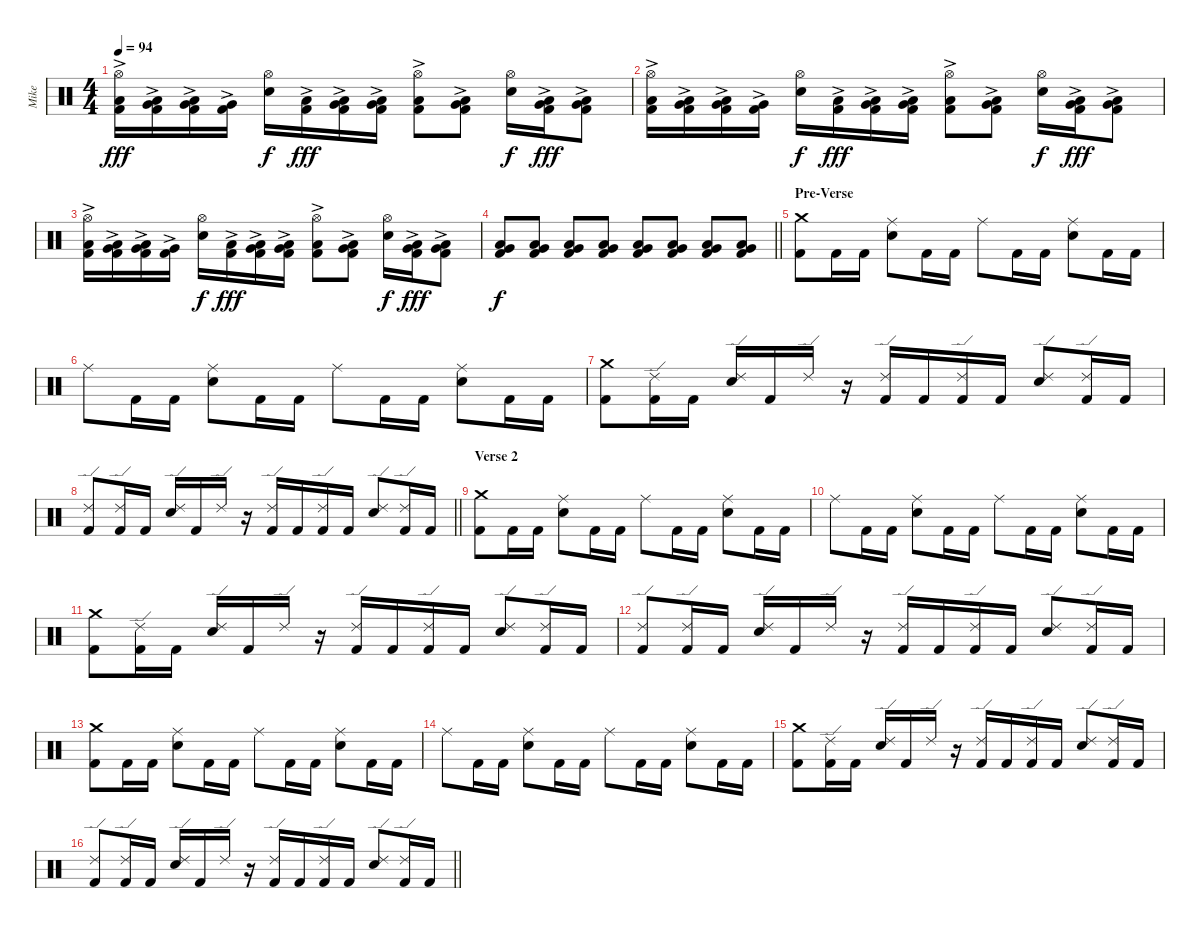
\track ("Mike" "Mike") {instrument percussion}
\staff {score}
\articulation defaults
\ts (4 4)
\tempo 94
\clef neutral
\ks c
("Hi-Hat (open)" "Low Tom (hit)"{ac} "Kick (hit) 2").16{dy fff} ("Low Tom (hit)"{ac} "Very Low Tom (hit)"{ac} "Kick (hit) 2").16 ("Very Low Tom (hit)"{ac} "Low Floor Tom (hit)"{ac} "Kick (hit) 2").16 ("Very Low Tom (hit)"{ac} "Kick (hit) 2").16 ("Hi-Hat (open)" "Snare (hit) 2").16{dy f} ("Low Tom (hit)"{ac} "Kick (hit) 2").16{dy fff} ("Low Tom (hit)"{ac} "Very Low Tom (hit)"{ac} "Kick (hit) 2").16 ("Very Low Tom (hit)"{ac} "Low Floor Tom (hit)"{ac} "Kick (hit) 2").16 ("Hi-Hat (open)" "Low Floor Tom (hit)"{ac} "Kick (hit) 2").8 ("Very Low Tom (hit)"{ac} "Low Floor Tom (hit)"{ac} "Kick (hit) 2").8 ("Hi-Hat (open)" "Snare (hit) 2").16{dy f} ("Very Low Tom (hit)"{ac} "Low Floor Tom (hit)"{ac} "Kick (hit) 2").16{dy fff} ("Very Low Tom (hit)"{ac} "Low Tom (hit)"{ac} "Kick (hit) 2").8 |
("Hi-Hat (open)" "Low Tom (hit)"{ac} "Kick (hit) 2").16 ("Low Tom (hit)"{ac} "Very Low Tom (hit)"{ac} "Kick (hit) 2").16 ("Very Low Tom (hit)"{ac} "Low Floor Tom (hit)"{ac} "Kick (hit) 2").16 ("Very Low Tom (hit)"{ac} "Kick (hit) 2").16 ("Hi-Hat (open)" "Snare (hit) 2").16{dy f} ("Low Tom (hit)"{ac} "Kick (hit) 2").16{dy fff} ("Low Tom (hit)"{ac} "Very Low Tom (hit)"{ac} "Kick (hit) 2").16 ("Very Low Tom (hit)"{ac} "Low Floor Tom (hit)"{ac} "Kick (hit) 2").16 ("Hi-Hat (open)" "Low Floor Tom (hit)"{ac} "Kick (hit) 2").8 ("Very Low Tom (hit)"{ac} "Low Floor Tom (hit)"{ac} "Kick (hit) 2").8 ("Hi-Hat (open)" "Snare (hit) 2").16{dy f} ("Very Low Tom (hit)"{ac} "Low Floor Tom (hit)"{ac} "Kick (hit) 2").16{dy fff} ("Very Low Tom (hit)"{ac} "Low Tom (hit)"{ac} "Kick (hit) 2").8 |
("Hi-Hat (open)" "Low Tom (hit)"{ac} "Kick (hit) 2").16 ("Low Tom (hit)"{ac} "Very Low Tom (hit)"{ac} "Kick (hit) 2").16 ("Very Low Tom (hit)"{ac} "Low Floor Tom (hit)"{ac} "Kick (hit) 2").16 ("Very Low Tom (hit)"{ac} "Kick (hit) 2").16 ("Hi-Hat (open)" "Snare (hit) 2").16{dy f} ("Low Tom (hit)"{ac} "Kick (hit) 2").16{dy fff} ("Low Tom (hit)"{ac} "Very Low Tom (hit)"{ac} "Kick (hit) 2").16 ("Very Low Tom (hit)"{ac} "Low Floor Tom (hit)"{ac} "Kick (hit) 2").16 ("Hi-Hat (open)" "Low Floor Tom (hit)"{ac} "Kick (hit) 2").8 ("Very Low Tom (hit)"{ac} "Low Floor Tom (hit)"{ac} "Kick (hit) 2").8 ("Hi-Hat (open)" "Snare (hit) 2").16{dy f} ("Very Low Tom (hit)"{ac} "Low Floor Tom (hit)"{ac} "Kick (hit) 2").16{dy fff} ("Very Low Tom (hit)"{ac} "Low Tom (hit)"{ac} "Kick (hit) 2").8 |
\barLineRight lightlight
("Low Tom (hit)" "Very Low Tom (hit)" "Kick (hit) 2").8{dy f} ("Low Tom (hit)" "Very Low Tom (hit)" "Kick (hit) 2").8 ("Low Tom (hit)" "Very Low Tom (hit)" "Kick (hit) 2").8 ("Low Tom (hit)" "Very Low Tom (hit)" "Kick (hit) 2").8 ("Low Tom (hit)" "Very Low Tom (hit)" "Kick (hit) 2").8 ("Low Tom (hit)" "Very Low Tom (hit)" "Kick (hit) 2").8 ("Low Tom (hit)" "Very Low Tom (hit)" "Kick (hit) 2").8 ("Low Tom (hit)" "Very Low Tom (hit)" "Kick (hit) 2").8 |
\section ("" "Pre-Verse")
("Crash medium (hit)" "Kick (hit) 2").8 "Kick (hit) 2".16 "Kick (hit) 2".16 ("Ride (middle)" "Snare (hit) 2").8 "Kick (hit) 2".16 "Kick (hit) 2".16 "Ride (middle)".8 "Kick (hit) 2".16 "Kick (hit) 2".16 ("Ride (middle)" "Snare (hit) 2").8 "Kick (hit) 2".16 "Kick (hit) 2".16 |
"Ride (middle)".8 "Kick (hit) 2".16 "Kick (hit) 2".16 ("Ride (middle)" "Snare (hit) 2").8 "Kick (hit) 2".16 "Kick (hit) 2".16 "Ride (middle)".8 "Kick (hit) 2".16 "Kick (hit) 2".16 ("Ride (middle)" "Snare (hit) 2").8 "Kick (hit) 2".16 "Kick (hit) 2".16 |
("Crash medium (hit)" "Kick (hit) 2").8 ("Ride (edge) 2" "Kick (hit) 2").16 "Kick (hit) 2".16 ("Ride (edge) 2" "Snare (hit) 2").16 "Kick (hit) 2".16 "Ride (edge) 2".16 r.16 ("Ride (edge) 2" "Kick (hit) 2").16 "Kick (hit) 2".16 ("Ride (edge) 2" "Kick (hit) 2").16 "Kick (hit) 2".16 ("Ride (edge) 2" "Snare (hit) 2").8 ("Ride (edge) 2" "Kick (hit) 2").16 "Kick (hit) 2".16 |
\barLineRight lightlight
("Ride (edge) 2" "Kick (hit) 2").8 ("Ride (edge) 2" "Kick (hit) 2").16 "Kick (hit) 2".16 ("Ride (edge) 2" "Snare (hit) 2").16 "Kick (hit) 2".16 "Ride (edge) 2".16 r.16 ("Ride (edge) 2" "Kick (hit) 2").16 "Kick (hit) 2".16 ("Ride (edge) 2" "Kick (hit) 2").16 "Kick (hit) 2".16 ("Ride (edge) 2" "Snare (hit) 2").8 ("Ride (edge) 2" "Kick (hit) 2").16 "Kick (hit) 2".16 |
\section ("" "Verse 2")
("Crash medium (hit)" "Kick (hit) 2").8 "Kick (hit) 2".16 "Kick (hit) 2".16 ("Ride (middle)" "Snare (hit) 2").8 "Kick (hit) 2".16 "Kick (hit) 2".16 "Ride (middle)".8 "Kick (hit) 2".16 "Kick (hit) 2".16 ("Ride (middle)" "Snare (hit) 2").8 "Kick (hit) 2".16 "Kick (hit) 2".16 |
"Ride (middle)".8 "Kick (hit) 2".16 "Kick (hit) 2".16 ("Ride (middle)" "Snare (hit) 2").8 "Kick (hit) 2".16 "Kick (hit) 2".16 "Ride (middle)".8 "Kick (hit) 2".16 "Kick (hit) 2".16 ("Ride (middle)" "Snare (hit) 2").8 "Kick (hit) 2".16 "Kick (hit) 2".16 |
("Crash medium (hit)" "Kick (hit) 2").8 ("Ride (edge) 2" "Kick (hit) 2").16 "Kick (hit) 2".16 ("Ride (edge) 2" "Snare (hit) 2").16 "Kick (hit) 2".16 "Ride (edge) 2".16 r.16 ("Ride (edge) 2" "Kick (hit) 2").16 "Kick (hit) 2".16 ("Ride (edge) 2" "Kick (hit) 2").16 "Kick (hit) 2".16 ("Ride (edge) 2" "Snare (hit) 2").8 ("Ride (edge) 2" "Kick (hit) 2").16 "Kick (hit) 2".16 |
("Ride (edge) 2" "Kick (hit) 2").8 ("Ride (edge) 2" "Kick (hit) 2").16 "Kick (hit) 2".16 ("Ride (edge) 2" "Snare (hit) 2").16 "Kick (hit) 2".16 "Ride (edge) 2".16 r.16 ("Ride (edge) 2" "Kick (hit) 2").16 "Kick (hit) 2".16 ("Ride (edge) 2" "Kick (hit) 2").16 "Kick (hit) 2".16 ("Ride (edge) 2" "Snare (hit) 2").8 ("Ride (edge) 2" "Kick (hit) 2").16 "Kick (hit) 2".16 |
("Crash medium (hit)" "Kick (hit) 2").8 "Kick (hit) 2".16 "Kick (hit) 2".16 ("Ride (middle)" "Snare (hit) 2").8 "Kick (hit) 2".16 "Kick (hit) 2".16 "Ride (middle)".8 "Kick (hit) 2".16 "Kick (hit) 2".16 ("Ride (middle)" "Snare (hit) 2").8 "Kick (hit) 2".16 "Kick (hit) 2".16 |
"Ride (middle)".8 "Kick (hit) 2".16 "Kick (hit) 2".16 ("Ride (middle)" "Snare (hit) 2").8 "Kick (hit) 2".16 "Kick (hit) 2".16 "Ride (middle)".8 "Kick (hit) 2".16 "Kick (hit) 2".16 ("Ride (middle)" "Snare (hit) 2").8 "Kick (hit) 2".16 "Kick (hit) 2".16 |
("Crash medium (hit)" "Kick (hit) 2").8 ("Ride (edge) 2" "Kick (hit) 2").16 "Kick (hit) 2".16 ("Ride (edge) 2" "Snare (hit) 2").16 "Kick (hit) 2".16 "Ride (edge) 2".16 r.16 ("Ride (edge) 2" "Kick (hit) 2").16 "Kick (hit) 2".16 ("Ride (edge) 2" "Kick (hit) 2").16 "Kick (hit) 2".16 ("Ride (edge) 2" "Snare (hit) 2").8 ("Ride (edge) 2" "Kick (hit) 2").16 "Kick (hit) 2".16 |
\barLineRight lightlight
("Ride (edge) 2" "Kick (hit) 2").8 ("Ride (edge) 2" "Kick (hit) 2").16 "Kick (hit) 2".16 ("Ride (edge) 2" "Snare (hit) 2").16 "Kick (hit) 2".16 "Ride (edge) 2".16 r.16 ("Ride (edge) 2" "Kick (hit) 2").16 "Kick (hit) 2".16 ("Ride (edge) 2" "Kick (hit) 2").16 "Kick (hit) 2".16 ("Ride (edge) 2" "Snare (hit) 2").8 ("Ride (edge) 2" "Kick (hit) 2").16 "Kick (hit) 2".16
